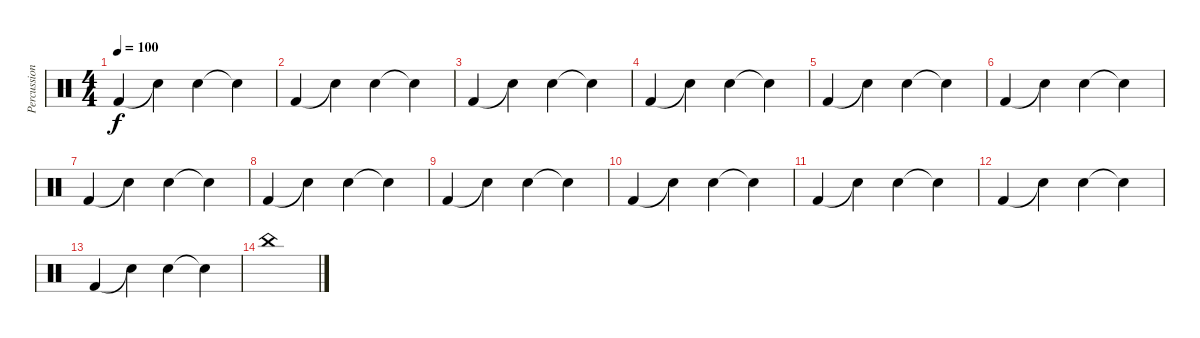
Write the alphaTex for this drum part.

\track ("Percussioni" "Percussion") {instrument percussion}
\staff {score}
\articulation defaults
\ts (4 4)
\tempo 100
\clef neutral
\ks c "Kick (hit) 2".4{dy f} "Snare (hit)"{t}.4 "Snare (hit) 2".4 "Snare (hit)"{t}.4
|
"Kick (hit) 2".4 "Snare (hit)"{t}.4 "Snare (hit) 2".4 "Snare (hit)"{t}.4 |
"Kick (hit) 2".4 "Snare (hit)"{t}.4 "Snare (hit) 2".4 "Snare (hit)"{t}.4 |
"Kick (hit) 2".4 "Snare (hit)"{t}.4 "Snare (hit) 2".4 "Snare (hit)"{t}.4 |
"Kick (hit) 2".4 "Snare (hit)"{t}.4 "Snare (hit) 2".4 "Snare (hit)"{t}.4 |
"Kick (hit) 2".4 "Snare (hit)"{t}.4 "Snare (hit) 2".4 "Snare (hit)"{t}.4 |
"Kick (hit) 2".4 "Snare (hit)"{t}.4 "Snare (hit) 2".4 "Snare (hit)"{t}.4 |
"Kick (hit) 2".4 "Snare (hit)"{t}.4 "Snare (hit) 2".4 "Snare (hit)"{t}.4 |
"Kick (hit) 2".4 "Snare (hit)"{t}.4 "Snare (hit) 2".4 "Snare (hit)"{t}.4 |
"Kick (hit) 2".4 "Snare (hit)"{t}.4 "Snare (hit) 2".4 "Snare (hit)"{t}.4 |
"Kick (hit) 2".4 "Snare (hit)"{t}.4 "Snare (hit) 2".4 "Snare (hit)"{t}.4 |
"Kick (hit) 2".4 "Snare (hit)"{t}.4 "Snare (hit) 2".4 "Snare (hit)"{t}.4 |
"Kick (hit) 2".4 "Snare (hit)"{t}.4 "Snare (hit) 2".4 "Snare (hit)"{t}.4 |
"China (hit)".1
